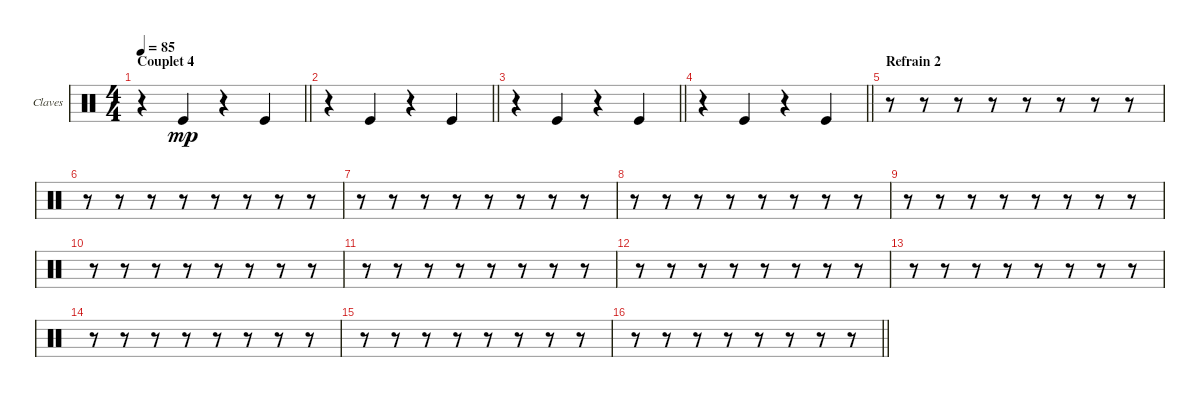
\bracketExtendMode groupsimilarinstruments
\firstSystemTrackNameOrientation horizontal
\otherSystemsTrackNameOrientation horizontal
\chordDiagramsInScore
\track ("Claves" "Claves") {instrument percussion}
\staff {score}
\articulation defaults
\ts (4 4)
\section ("" "Couplet 4")
\tempo 85
\clef neutral
\barLineRight lightlight
\ks c
r.4{dy mp} "Kick (hit)".4 r.4 "Kick (hit)".4 |
\barLineRight lightlight
r.4 "Kick (hit)".4 r.4 "Kick (hit)".4 |
\barLineRight lightlight
r.4 "Kick (hit)".4 r.4 "Kick (hit)".4 |
\barLineRight lightlight
r.4 "Kick (hit)".4 r.4 "Kick (hit)".4 |
\section ("" "Refrain 2")
r.8 r.8 r.8 r.8 r.8 r.8 r.8 r.8 |
r.8 r.8 r.8 r.8 r.8 r.8 r.8 r.8 |
r.8 r.8 r.8 r.8 r.8 r.8 r.8 r.8 |
r.8 r.8 r.8 r.8 r.8 r.8 r.8 r.8 |
r.8 r.8 r.8 r.8 r.8 r.8 r.8 r.8 |
r.8 r.8 r.8 r.8 r.8 r.8 r.8 r.8 |
r.8 r.8 r.8 r.8 r.8 r.8 r.8 r.8 |
r.8 r.8 r.8 r.8 r.8 r.8 r.8 r.8 |
r.8 r.8 r.8 r.8 r.8 r.8 r.8 r.8 |
r.8 r.8 r.8 r.8 r.8 r.8 r.8 r.8 |
r.8 r.8 r.8 r.8 r.8 r.8 r.8 r.8 |
\barLineRight lightlight
r.8 r.8 r.8 r.8 r.8 r.8 r.8 r.8
